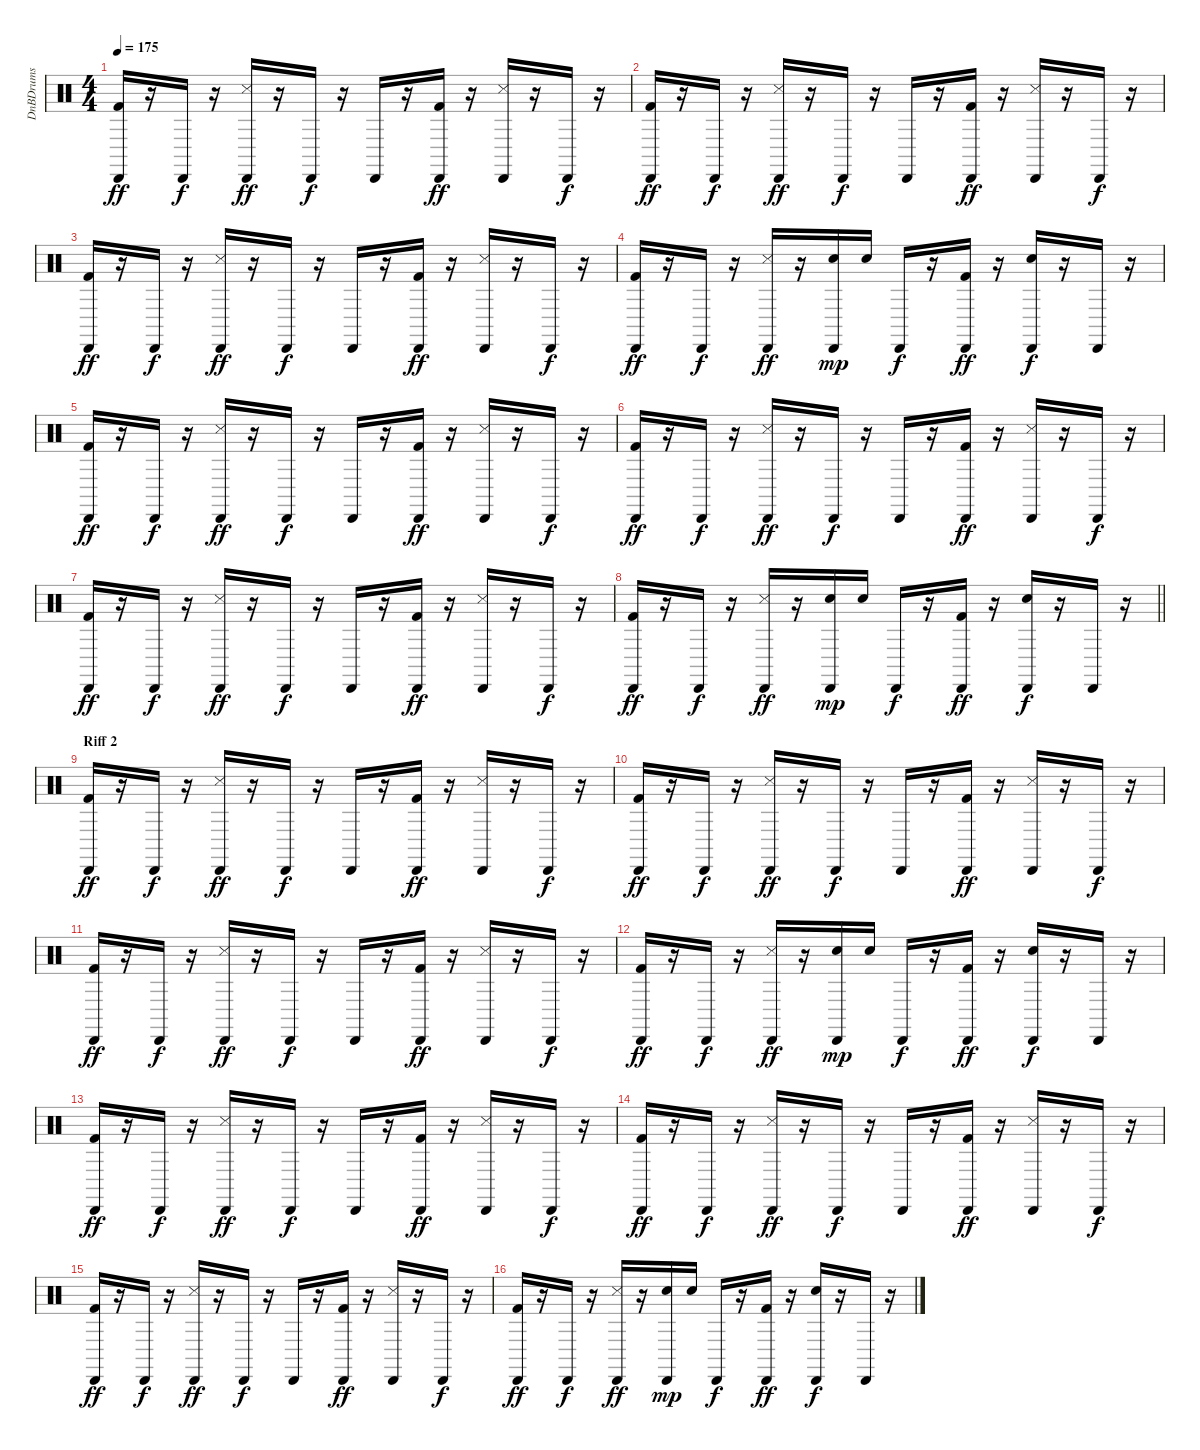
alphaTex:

\track ("DnBDrums" "DnBDrums") {instrument percussion}
\staff {score}
\articulation defaults
\ts (4 4)
\tempo 175
\clef neutral
\ks c
("Kick (hit) 2" "Cabasa (hit)").16{dy ff} r.16 "Cabasa (hit)".16{dy f} r.16 ("Snare (side stick) 3" "Cabasa (hit)").16{dy ff} r.16 "Cabasa (hit)".16{dy f} r.16 "Cabasa (hit)".16 r.16 ("Kick (hit) 2" "Cabasa (hit)").16{dy ff} r.16 ("Snare (side stick) 3" "Cabasa (hit)").16 r.16 "Cabasa (hit)".16{dy f} r.16 |
("Kick (hit) 2" "Cabasa (hit)").16{dy ff} r.16 "Cabasa (hit)".16{dy f} r.16 ("Snare (side stick) 3" "Cabasa (hit)").16{dy ff} r.16 "Cabasa (hit)".16{dy f} r.16 "Cabasa (hit)".16 r.16 ("Kick (hit) 2" "Cabasa (hit)").16{dy ff} r.16 ("Snare (side stick) 3" "Cabasa (hit)").16 r.16 "Cabasa (hit)".16{dy f} r.16 |
("Kick (hit) 2" "Cabasa (hit)").16{dy ff} r.16 "Cabasa (hit)".16{dy f} r.16 ("Snare (side stick) 3" "Cabasa (hit)").16{dy ff} r.16 "Cabasa (hit)".16{dy f} r.16 "Cabasa (hit)".16 r.16 ("Kick (hit) 2" "Cabasa (hit)").16{dy ff} r.16 ("Snare (side stick) 3" "Cabasa (hit)").16 r.16 "Cabasa (hit)".16{dy f} r.16 |
("Kick (hit) 2" "Cabasa (hit)").16{dy ff} r.16 "Cabasa (hit)".16{dy f} r.16 ("Snare (side stick) 3" "Cabasa (hit)").16{dy ff} r.16 ("Electric Snare (hit)" "Cabasa (hit)").16{dy mp} "Electric Snare (hit)".16 "Cabasa (hit)".16{dy f} r.16 ("Kick (hit) 2" "Cabasa (hit)").16{dy ff} r.16 ("Electric Snare (hit)" "Cabasa (hit)").16{dy f} r.16 "Cabasa (hit)".16 r.16 |
("Kick (hit) 2" "Cabasa (hit)").16{dy ff} r.16 "Cabasa (hit)".16{dy f} r.16 ("Snare (side stick) 3" "Cabasa (hit)").16{dy ff} r.16 "Cabasa (hit)".16{dy f} r.16 "Cabasa (hit)".16 r.16 ("Kick (hit) 2" "Cabasa (hit)").16{dy ff} r.16 ("Snare (side stick) 3" "Cabasa (hit)").16 r.16 "Cabasa (hit)".16{dy f} r.16 |
("Kick (hit) 2" "Cabasa (hit)").16{dy ff} r.16 "Cabasa (hit)".16{dy f} r.16 ("Snare (side stick) 3" "Cabasa (hit)").16{dy ff} r.16 "Cabasa (hit)".16{dy f} r.16 "Cabasa (hit)".16 r.16 ("Kick (hit) 2" "Cabasa (hit)").16{dy ff} r.16 ("Snare (side stick) 3" "Cabasa (hit)").16 r.16 "Cabasa (hit)".16{dy f} r.16 |
("Kick (hit) 2" "Cabasa (hit)").16{dy ff} r.16 "Cabasa (hit)".16{dy f} r.16 ("Snare (side stick) 3" "Cabasa (hit)").16{dy ff} r.16 "Cabasa (hit)".16{dy f} r.16 "Cabasa (hit)".16 r.16 ("Kick (hit) 2" "Cabasa (hit)").16{dy ff} r.16 ("Snare (side stick) 3" "Cabasa (hit)").16 r.16 "Cabasa (hit)".16{dy f} r.16 |
\barLineRight lightlight
("Kick (hit) 2" "Cabasa (hit)").16{dy ff} r.16 "Cabasa (hit)".16{dy f} r.16 ("Snare (side stick) 3" "Cabasa (hit)").16{dy ff} r.16 ("Electric Snare (hit)" "Cabasa (hit)").16{dy mp} "Electric Snare (hit)".16 "Cabasa (hit)".16{dy f} r.16 ("Kick (hit) 2" "Cabasa (hit)").16{dy ff} r.16 ("Electric Snare (hit)" "Cabasa (hit)").16{dy f} r.16 "Cabasa (hit)".16 r.16 |
\section ("" "Riff 2")
("Kick (hit) 2" "Cabasa (hit)").16{dy ff} r.16 "Cabasa (hit)".16{dy f} r.16 ("Snare (side stick) 3" "Cabasa (hit)").16{dy ff} r.16 "Cabasa (hit)".16{dy f} r.16 "Cabasa (hit)".16 r.16 ("Kick (hit) 2" "Cabasa (hit)").16{dy ff} r.16 ("Snare (side stick) 3" "Cabasa (hit)").16 r.16 "Cabasa (hit)".16{dy f} r.16 |
("Kick (hit) 2" "Cabasa (hit)").16{dy ff} r.16 "Cabasa (hit)".16{dy f} r.16 ("Snare (side stick) 3" "Cabasa (hit)").16{dy ff} r.16 "Cabasa (hit)".16{dy f} r.16 "Cabasa (hit)".16 r.16 ("Kick (hit) 2" "Cabasa (hit)").16{dy ff} r.16 ("Snare (side stick) 3" "Cabasa (hit)").16 r.16 "Cabasa (hit)".16{dy f} r.16 |
("Kick (hit) 2" "Cabasa (hit)").16{dy ff} r.16 "Cabasa (hit)".16{dy f} r.16 ("Snare (side stick) 3" "Cabasa (hit)").16{dy ff} r.16 "Cabasa (hit)".16{dy f} r.16 "Cabasa (hit)".16 r.16 ("Kick (hit) 2" "Cabasa (hit)").16{dy ff} r.16 ("Snare (side stick) 3" "Cabasa (hit)").16 r.16 "Cabasa (hit)".16{dy f} r.16 |
("Kick (hit) 2" "Cabasa (hit)").16{dy ff} r.16 "Cabasa (hit)".16{dy f} r.16 ("Snare (side stick) 3" "Cabasa (hit)").16{dy ff} r.16 ("Electric Snare (hit)" "Cabasa (hit)").16{dy mp} "Electric Snare (hit)".16 "Cabasa (hit)".16{dy f} r.16 ("Kick (hit) 2" "Cabasa (hit)").16{dy ff} r.16 ("Electric Snare (hit)" "Cabasa (hit)").16{dy f} r.16 "Cabasa (hit)".16 r.16 |
("Kick (hit) 2" "Cabasa (hit)").16{dy ff} r.16 "Cabasa (hit)".16{dy f} r.16 ("Snare (side stick) 3" "Cabasa (hit)").16{dy ff} r.16 "Cabasa (hit)".16{dy f} r.16 "Cabasa (hit)".16 r.16 ("Kick (hit) 2" "Cabasa (hit)").16{dy ff} r.16 ("Snare (side stick) 3" "Cabasa (hit)").16 r.16 "Cabasa (hit)".16{dy f} r.16 |
("Kick (hit) 2" "Cabasa (hit)").16{dy ff} r.16 "Cabasa (hit)".16{dy f} r.16 ("Snare (side stick) 3" "Cabasa (hit)").16{dy ff} r.16 "Cabasa (hit)".16{dy f} r.16 "Cabasa (hit)".16 r.16 ("Kick (hit) 2" "Cabasa (hit)").16{dy ff} r.16 ("Snare (side stick) 3" "Cabasa (hit)").16 r.16 "Cabasa (hit)".16{dy f} r.16 |
("Kick (hit) 2" "Cabasa (hit)").16{dy ff} r.16 "Cabasa (hit)".16{dy f} r.16 ("Snare (side stick) 3" "Cabasa (hit)").16{dy ff} r.16 "Cabasa (hit)".16{dy f} r.16 "Cabasa (hit)".16 r.16 ("Kick (hit) 2" "Cabasa (hit)").16{dy ff} r.16 ("Snare (side stick) 3" "Cabasa (hit)").16 r.16 "Cabasa (hit)".16{dy f} r.16 |
("Kick (hit) 2" "Cabasa (hit)").16{dy ff} r.16 "Cabasa (hit)".16{dy f} r.16 ("Snare (side stick) 3" "Cabasa (hit)").16{dy ff} r.16 ("Electric Snare (hit)" "Cabasa (hit)").16{dy mp} "Electric Snare (hit)".16 "Cabasa (hit)".16{dy f} r.16 ("Kick (hit) 2" "Cabasa (hit)").16{dy ff} r.16 ("Electric Snare (hit)" "Cabasa (hit)").16{dy f} r.16 "Cabasa (hit)".16 r.16
